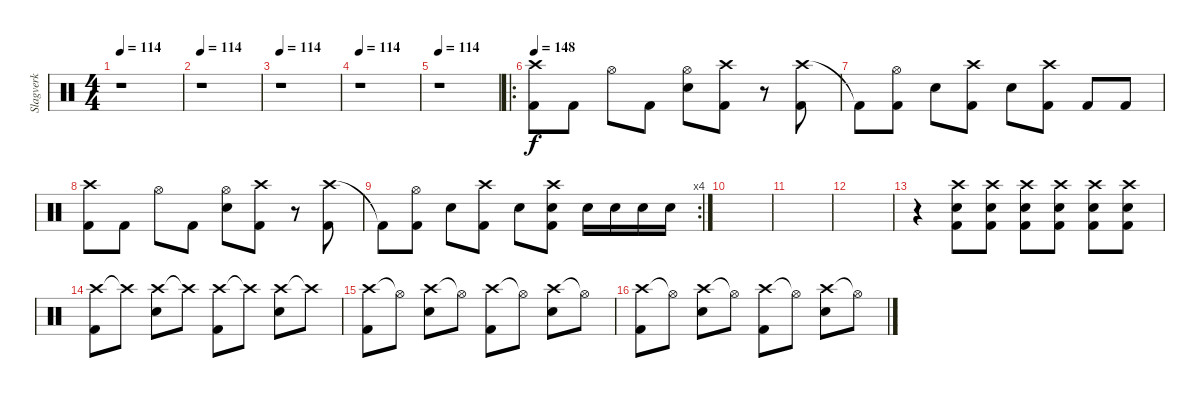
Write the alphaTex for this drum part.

\track ("Slagverk" "Slagverk") {instrument percussion}
\staff {score}
\articulation defaults
\ts (4 4)
\tempo 114
\clef neutral
\ks c
r.1{dy f} |
\tempo 114
r.1 |
\tempo 114
r.1 |
\tempo 114
r.1 |
\tempo 114
r.1 |
\ro
\tempo 148
("Crash high (hit)" "Kick (hit) 2").8 "Kick (hit) 2".8 "Hi-Hat (open)".8 "Kick (hit) 2".8 ("Hi-Hat (open)" "Electric Snare (hit)").8 ("Crash high (hit)" "Kick (hit) 2").8 r.8 ("Crash high (hit)" "Kick (hit) 2").8 |
"Kick (hit) 2"{t}.8 ("Hi-Hat (open)" "Kick (hit) 2").8 "Electric Snare (hit)".8 ("Crash high (hit)" "Kick (hit) 2").8 "Electric Snare (hit)".8 ("Crash high (hit)" "Kick (hit) 2").8 "Kick (hit) 2".8 "Kick (hit) 2".8 |
("Crash high (hit)" "Kick (hit) 2").8 "Kick (hit) 2".8 "Hi-Hat (open)".8 "Kick (hit) 2".8 ("Hi-Hat (open)" "Electric Snare (hit)").8 ("Crash high (hit)" "Kick (hit) 2").8 r.8 ("Crash high (hit)" "Kick (hit) 2").8 |
\rc 4 "Kick (hit) 2"{t}.8
("Hi-Hat (open)" "Kick (hit) 2").8 "Electric Snare (hit)".8 ("Crash high (hit)" "Kick (hit) 2").8 "Electric Snare (hit)".8 ("Crash high (hit)" "Electric Snare (hit)" "Kick (hit) 2").8 "Electric Snare (hit)".16 "Electric Snare (hit)".16 "Electric Snare (hit)".16 "Electric Snare (hit)".16 |
|
|
|
r.4 ("Crash high (hit)" "Electric Snare (hit)" "Kick (hit) 2").8 ("Crash high (hit)" "Electric Snare (hit)" "Kick (hit) 2").8 ("Crash high (hit)" "Electric Snare (hit)" "Kick (hit) 2").8 ("Crash high (hit)" "Electric Snare (hit)" "Kick (hit) 2").8 ("Crash high (hit)" "Electric Snare (hit)" "Kick (hit) 2").8 ("Crash high (hit)" "Electric Snare (hit)" "Kick (hit) 2").8 |
("Crash high (hit)" "Kick (hit) 2").8 "Crash high (hit)"{t}.8 ("Crash high (hit)" "Electric Snare (hit)").8 "Crash high (hit)"{t}.8 ("Crash high (hit)" "Kick (hit) 2").8 "Crash high (hit)"{t}.8 ("Crash high (hit)" "Electric Snare (hit)").8 "Crash high (hit)"{t}.8 |
("Crash high (hit)" "Kick (hit) 2").8 "Hi-Hat (open)"{t}.8 ("Crash high (hit)" "Electric Snare (hit)").8 "Hi-Hat (open)"{t}.8 ("Crash high (hit)" "Kick (hit) 2").8 "Hi-Hat (open)"{t}.8 ("Crash high (hit)" "Electric Snare (hit)").8 "Hi-Hat (open)"{t}.8 |
("Crash high (hit)" "Kick (hit) 2").8 "Hi-Hat (open)"{t}.8 ("Crash high (hit)" "Electric Snare (hit)").8 "Hi-Hat (open)"{t}.8 ("Crash high (hit)" "Kick (hit) 2").8 "Hi-Hat (open)"{t}.8 ("Crash high (hit)" "Electric Snare (hit)").8 "Hi-Hat (open)"{t}.8
